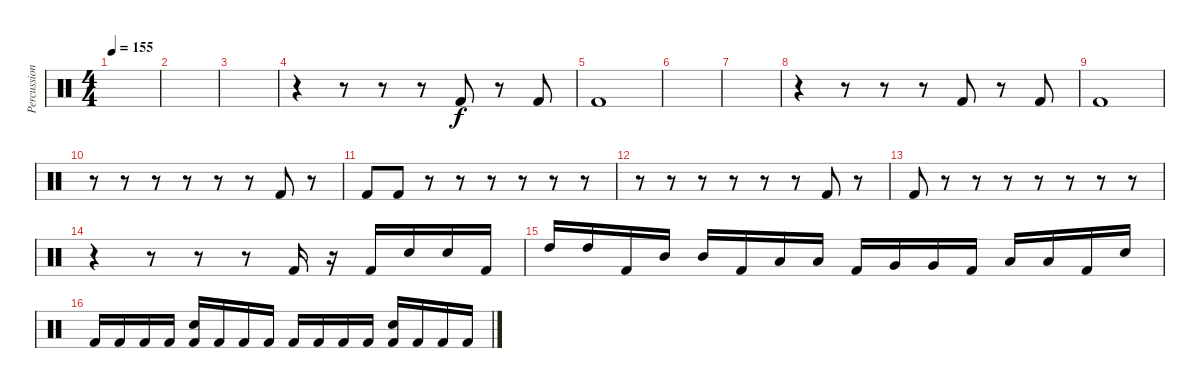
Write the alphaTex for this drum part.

\track ("Percussion" "Percussion") {instrument percussion}
\staff {score}
\articulation defaults
\ts (4 4)
\tempo 155
\clef neutral
\ks c
|
|
|
r.4 r.8 r.8 r.8 "Kick (hit) 2".8 r.8 "Kick (hit) 2".8 |
"Kick (hit) 2".1 |
|
|
r.4 r.8 r.8 r.8 "Kick (hit) 2".8 r.8 "Kick (hit) 2".8 |
"Kick (hit) 2".1 |
r.8 r.8 r.8 r.8 r.8 r.8 "Kick (hit) 2".8 r.8 |
"Kick (hit) 2".8 "Kick (hit) 2".8 r.8 r.8 r.8 r.8 r.8 r.8 |
r.8 r.8 r.8 r.8 r.8 r.8 "Kick (hit) 2".8 r.8 |
"Kick (hit) 2".8 r.8 r.8 r.8 r.8 r.8 r.8 r.8 |
r.4 r.8 r.8 r.8 "Kick (hit) 2".16 r.16 "Kick (hit) 2".16 "Snare (hit) 2".16 "Snare (hit) 2".16 "Kick (hit) 2".16 |
"High Tom (hit)".16 "High Tom (hit)".16 "Kick (hit) 2".16 "Mid Tom (hit)".16 "Mid Tom (hit)".16 "Kick (hit) 2".16 "Low Tom (hit)".16 "Low Tom (hit)".16 "Kick (hit) 2".16 "Very Low Tom (hit)".16 "Very Low Tom (hit)".16 "Kick (hit) 2".16 "Low Floor Tom (hit)".16 "Low Floor Tom (hit)".16 "Kick (hit) 2".16 "Snare (hit) 2".16 |
"Kick (hit) 2".16 "Kick (hit) 2".16 "Kick (hit) 2".16 "Kick (hit) 2".16 ("Kick (hit) 2" "Snare (hit) 2").16 "Kick (hit) 2".16 "Kick (hit) 2".16 "Kick (hit) 2".16 "Kick (hit) 2".16 "Kick (hit) 2".16 "Kick (hit) 2".16 "Kick (hit) 2".16 ("Kick (hit) 2" "Snare (hit) 2").16 "Kick (hit) 2".16 "Kick (hit) 2".16 "Kick (hit) 2".16
